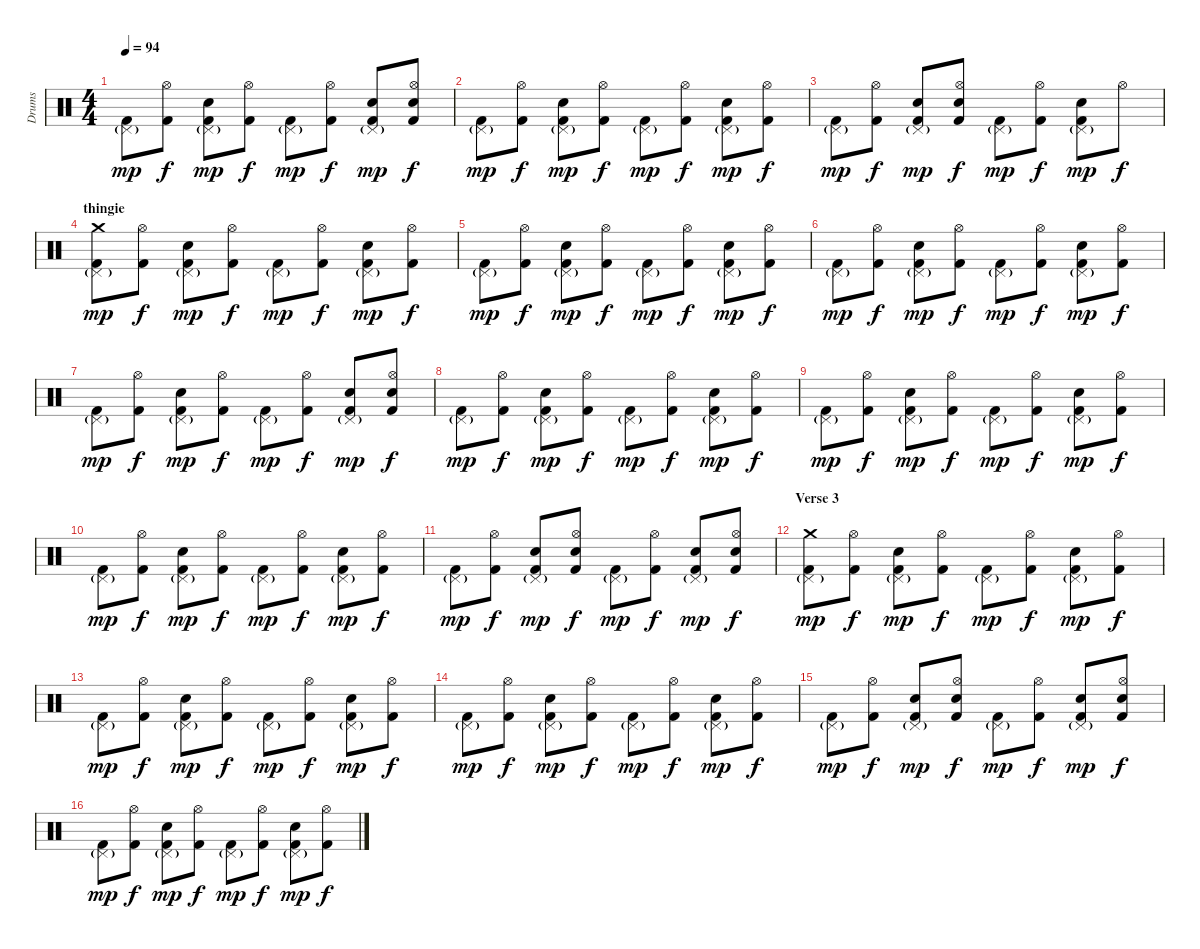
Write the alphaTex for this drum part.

\track ("Drums" "Drums") {instrument percussion}
\staff {score}
\articulation defaults
\ts (4 4)
\tempo 94
\clef neutral
\ks c
("Pedal Hi-Hat (hit)"{g} "Kick (hit) 2").8{dy mp} ("Hi-Hat (open)" "Kick (hit) 2").8{dy f} ("Pedal Hi-Hat (hit)"{g} "Snare (hit) 2" "Kick (hit) 2").8{dy mp} ("Hi-Hat (open)" "Kick (hit) 2").8{dy f} ("Pedal Hi-Hat (hit)"{g} "Kick (hit) 2").8{dy mp} ("Hi-Hat (open)" "Kick (hit) 2").8{dy f} ("Pedal Hi-Hat (hit)"{g} "Snare (hit) 2" "Kick (hit) 2").8{dy mp} ("Hi-Hat (open)" "Snare (hit) 2" "Kick (hit) 2").8{dy f} |
("Pedal Hi-Hat (hit)"{g} "Kick (hit) 2").8{dy mp} ("Hi-Hat (open)" "Kick (hit) 2").8{dy f} ("Pedal Hi-Hat (hit)"{g} "Snare (hit) 2" "Kick (hit) 2").8{dy mp} ("Hi-Hat (open)" "Kick (hit) 2").8{dy f} ("Pedal Hi-Hat (hit)"{g} "Kick (hit) 2").8{dy mp} ("Hi-Hat (open)" "Kick (hit) 2").8{dy f} ("Pedal Hi-Hat (hit)"{g} "Snare (hit) 2" "Kick (hit) 2").8{dy mp} ("Hi-Hat (open)" "Kick (hit) 2").8{dy f} |
("Pedal Hi-Hat (hit)"{g} "Kick (hit) 2").8{dy mp} ("Hi-Hat (open)" "Kick (hit) 2").8{dy f} ("Pedal Hi-Hat (hit)"{g} "Snare (hit) 2" "Kick (hit) 2").8{dy mp} ("Hi-Hat (open)" "Snare (hit) 2" "Kick (hit) 2").8{dy f} ("Pedal Hi-Hat (hit)"{g} "Kick (hit) 2").8{dy mp} ("Hi-Hat (open)" "Kick (hit) 2").8{dy f} ("Pedal Hi-Hat (hit)"{g} "Snare (hit) 2" "Kick (hit) 2").8{dy mp} "Hi-Hat (open)".8{dy f} |
\section ("" "thingie")
("Pedal Hi-Hat (hit)"{g} "Crash medium (hit)" "Kick (hit) 2").8{dy mp} ("Hi-Hat (open)" "Kick (hit) 2").8{dy f} ("Pedal Hi-Hat (hit)"{g} "Snare (hit) 2" "Kick (hit) 2").8{dy mp} ("Hi-Hat (open)" "Kick (hit) 2").8{dy f} ("Pedal Hi-Hat (hit)"{g} "Kick (hit) 2").8{dy mp} ("Hi-Hat (open)" "Kick (hit) 2").8{dy f} ("Pedal Hi-Hat (hit)"{g} "Snare (hit) 2" "Kick (hit) 2").8{dy mp} ("Hi-Hat (open)" "Kick (hit) 2").8{dy f} |
("Pedal Hi-Hat (hit)"{g} "Kick (hit) 2").8{dy mp} ("Hi-Hat (open)" "Kick (hit) 2").8{dy f} ("Pedal Hi-Hat (hit)"{g} "Snare (hit) 2" "Kick (hit) 2").8{dy mp} ("Hi-Hat (open)" "Kick (hit) 2").8{dy f} ("Pedal Hi-Hat (hit)"{g} "Kick (hit) 2").8{dy mp} ("Hi-Hat (open)" "Kick (hit) 2").8{dy f} ("Pedal Hi-Hat (hit)"{g} "Snare (hit) 2" "Kick (hit) 2").8{dy mp} ("Hi-Hat (open)" "Kick (hit) 2").8{dy f} |
("Pedal Hi-Hat (hit)"{g} "Kick (hit) 2").8{dy mp} ("Hi-Hat (open)" "Kick (hit) 2").8{dy f} ("Pedal Hi-Hat (hit)"{g} "Snare (hit) 2" "Kick (hit) 2").8{dy mp} ("Hi-Hat (open)" "Kick (hit) 2").8{dy f} ("Pedal Hi-Hat (hit)"{g} "Kick (hit) 2").8{dy mp} ("Hi-Hat (open)" "Kick (hit) 2").8{dy f} ("Pedal Hi-Hat (hit)"{g} "Snare (hit) 2" "Kick (hit) 2").8{dy mp} ("Hi-Hat (open)" "Kick (hit) 2").8{dy f} |
("Pedal Hi-Hat (hit)"{g} "Kick (hit) 2").8{dy mp} ("Hi-Hat (open)" "Kick (hit) 2").8{dy f} ("Pedal Hi-Hat (hit)"{g} "Snare (hit) 2" "Kick (hit) 2").8{dy mp} ("Hi-Hat (open)" "Kick (hit) 2").8{dy f} ("Pedal Hi-Hat (hit)"{g} "Kick (hit) 2").8{dy mp} ("Hi-Hat (open)" "Kick (hit) 2").8{dy f} ("Pedal Hi-Hat (hit)"{g} "Snare (hit) 2" "Kick (hit) 2").8{dy mp} ("Hi-Hat (open)" "Snare (hit) 2" "Kick (hit) 2").8{dy f} |
("Pedal Hi-Hat (hit)"{g} "Kick (hit) 2").8{dy mp} ("Hi-Hat (open)" "Kick (hit) 2").8{dy f} ("Pedal Hi-Hat (hit)"{g} "Snare (hit) 2" "Kick (hit) 2").8{dy mp} ("Hi-Hat (open)" "Kick (hit) 2").8{dy f} ("Pedal Hi-Hat (hit)"{g} "Kick (hit) 2").8{dy mp} ("Hi-Hat (open)" "Kick (hit) 2").8{dy f} ("Pedal Hi-Hat (hit)"{g} "Snare (hit) 2" "Kick (hit) 2").8{dy mp} ("Hi-Hat (open)" "Kick (hit) 2").8{dy f} |
("Pedal Hi-Hat (hit)"{g} "Kick (hit) 2").8{dy mp} ("Hi-Hat (open)" "Kick (hit) 2").8{dy f} ("Pedal Hi-Hat (hit)"{g} "Snare (hit) 2" "Kick (hit) 2").8{dy mp} ("Hi-Hat (open)" "Kick (hit) 2").8{dy f} ("Pedal Hi-Hat (hit)"{g} "Kick (hit) 2").8{dy mp} ("Hi-Hat (open)" "Kick (hit) 2").8{dy f} ("Pedal Hi-Hat (hit)"{g} "Snare (hit) 2" "Kick (hit) 2").8{dy mp} ("Hi-Hat (open)" "Kick (hit) 2").8{dy f} |
("Pedal Hi-Hat (hit)"{g} "Kick (hit) 2").8{dy mp} ("Hi-Hat (open)" "Kick (hit) 2").8{dy f} ("Pedal Hi-Hat (hit)"{g} "Snare (hit) 2" "Kick (hit) 2").8{dy mp} ("Hi-Hat (open)" "Kick (hit) 2").8{dy f} ("Pedal Hi-Hat (hit)"{g} "Kick (hit) 2").8{dy mp} ("Hi-Hat (open)" "Kick (hit) 2").8{dy f} ("Pedal Hi-Hat (hit)"{g} "Snare (hit) 2" "Kick (hit) 2").8{dy mp} ("Hi-Hat (open)" "Kick (hit) 2").8{dy f} |
("Pedal Hi-Hat (hit)"{g} "Kick (hit) 2").8{dy mp} ("Hi-Hat (open)" "Kick (hit) 2").8{dy f} ("Pedal Hi-Hat (hit)"{g} "Snare (hit) 2" "Kick (hit) 2").8{dy mp} ("Hi-Hat (open)" "Snare (hit) 2" "Kick (hit) 2").8{dy f} ("Pedal Hi-Hat (hit)"{g} "Kick (hit) 2").8{dy mp} ("Hi-Hat (open)" "Kick (hit) 2").8{dy f} ("Pedal Hi-Hat (hit)"{g} "Snare (hit) 2" "Kick (hit) 2").8{dy mp} ("Hi-Hat (open)" "Snare (hit) 2" "Kick (hit) 2").8{dy f} |
\section ("" "Verse 3")
("Pedal Hi-Hat (hit)"{g} "Crash medium (hit)" "Kick (hit) 2").8{dy mp} ("Hi-Hat (open)" "Kick (hit) 2").8{dy f} ("Pedal Hi-Hat (hit)"{g} "Snare (hit) 2" "Kick (hit) 2").8{dy mp} ("Hi-Hat (open)" "Kick (hit) 2").8{dy f} ("Pedal Hi-Hat (hit)"{g} "Kick (hit) 2").8{dy mp} ("Hi-Hat (open)" "Kick (hit) 2").8{dy f} ("Pedal Hi-Hat (hit)"{g} "Snare (hit) 2" "Kick (hit) 2").8{dy mp} ("Hi-Hat (open)" "Kick (hit) 2").8{dy f} |
("Pedal Hi-Hat (hit)"{g} "Kick (hit) 2").8{dy mp} ("Hi-Hat (open)" "Kick (hit) 2").8{dy f} ("Pedal Hi-Hat (hit)"{g} "Snare (hit) 2" "Kick (hit) 2").8{dy mp} ("Hi-Hat (open)" "Kick (hit) 2").8{dy f} ("Pedal Hi-Hat (hit)"{g} "Kick (hit) 2").8{dy mp} ("Hi-Hat (open)" "Kick (hit) 2").8{dy f} ("Pedal Hi-Hat (hit)"{g} "Snare (hit) 2" "Kick (hit) 2").8{dy mp} ("Hi-Hat (open)" "Kick (hit) 2").8{dy f} |
("Pedal Hi-Hat (hit)"{g} "Kick (hit) 2").8{dy mp} ("Hi-Hat (open)" "Kick (hit) 2").8{dy f} ("Pedal Hi-Hat (hit)"{g} "Snare (hit) 2" "Kick (hit) 2").8{dy mp} ("Hi-Hat (open)" "Kick (hit) 2").8{dy f} ("Pedal Hi-Hat (hit)"{g} "Kick (hit) 2").8{dy mp} ("Hi-Hat (open)" "Kick (hit) 2").8{dy f} ("Pedal Hi-Hat (hit)"{g} "Snare (hit) 2" "Kick (hit) 2").8{dy mp} ("Hi-Hat (open)" "Kick (hit) 2").8{dy f} |
("Pedal Hi-Hat (hit)"{g} "Kick (hit) 2").8{dy mp} ("Hi-Hat (open)" "Kick (hit) 2").8{dy f} ("Pedal Hi-Hat (hit)"{g} "Snare (hit) 2" "Kick (hit) 2").8{dy mp} ("Hi-Hat (open)" "Snare (hit) 2" "Kick (hit) 2").8{dy f} ("Pedal Hi-Hat (hit)"{g} "Kick (hit) 2").8{dy mp} ("Hi-Hat (open)" "Kick (hit) 2").8{dy f} ("Pedal Hi-Hat (hit)"{g} "Snare (hit) 2" "Kick (hit) 2").8{dy mp} ("Hi-Hat (open)" "Snare (hit) 2" "Kick (hit) 2").8{dy f} |
("Pedal Hi-Hat (hit)"{g} "Kick (hit) 2").8{dy mp} ("Hi-Hat (open)" "Kick (hit) 2").8{dy f} ("Pedal Hi-Hat (hit)"{g} "Snare (hit) 2" "Kick (hit) 2").8{dy mp} ("Hi-Hat (open)" "Kick (hit) 2").8{dy f} ("Pedal Hi-Hat (hit)"{g} "Kick (hit) 2").8{dy mp} ("Hi-Hat (open)" "Kick (hit) 2").8{dy f} ("Pedal Hi-Hat (hit)"{g} "Snare (hit) 2" "Kick (hit) 2").8{dy mp} ("Hi-Hat (open)" "Kick (hit) 2").8{dy f}
